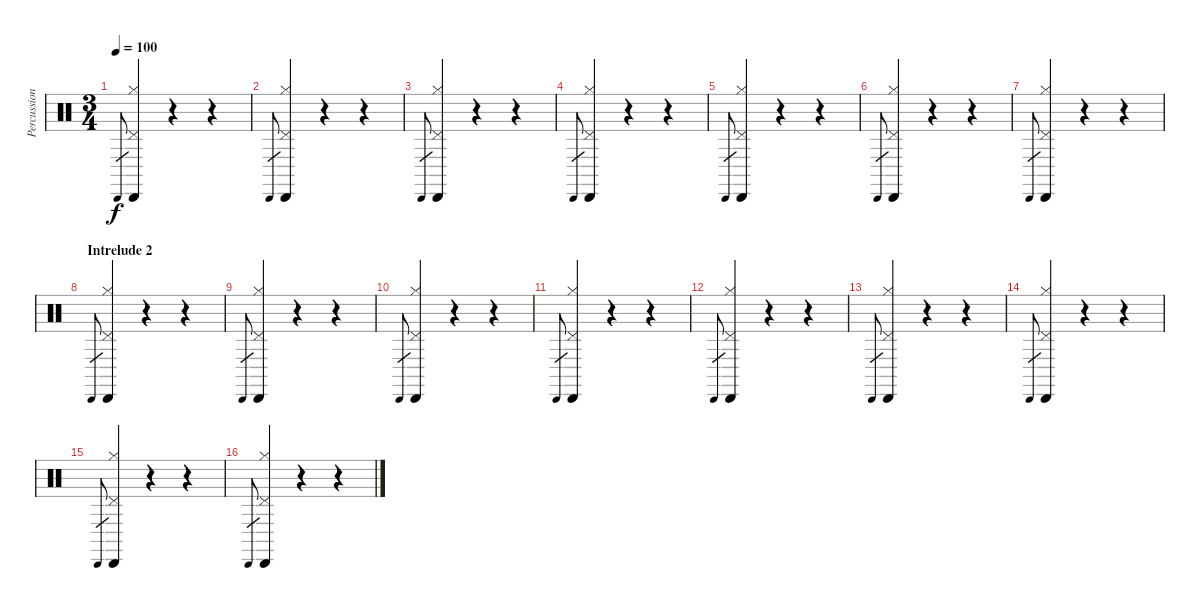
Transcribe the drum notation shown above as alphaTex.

\track ("Percussion" "Percussion") {instrument percussion}
\staff {score}
\articulation defaults
\ts (3 4)
\tempo 100
\clef neutral
\ks c "Cabasa (hit)".8{gr dy f}
("Pedal Hi-Hat (hit)" "Cabasa (hit)" "Hi-Hat (closed)").4 r.4 r.4 |
"Cabasa (hit)".8{gr} ("Pedal Hi-Hat (hit)" "Cabasa (hit)" "Hi-Hat (closed)").4 r.4 r.4 |
"Cabasa (hit)".8{gr} ("Pedal Hi-Hat (hit)" "Cabasa (hit)" "Hi-Hat (closed)").4 r.4 r.4 |
"Cabasa (hit)".8{gr} ("Pedal Hi-Hat (hit)" "Cabasa (hit)" "Hi-Hat (closed)").4 r.4 r.4 |
"Cabasa (hit)".8{gr} ("Pedal Hi-Hat (hit)" "Cabasa (hit)" "Hi-Hat (closed)").4 r.4 r.4 |
"Cabasa (hit)".8{gr} ("Pedal Hi-Hat (hit)" "Cabasa (hit)" "Hi-Hat (closed)").4 r.4 r.4 |
"Cabasa (hit)".8{gr} ("Pedal Hi-Hat (hit)" "Cabasa (hit)" "Hi-Hat (closed)").4 r.4 r.4 |
\section ("" "Intrelude 2")
"Cabasa (hit)".8{gr} ("Pedal Hi-Hat (hit)" "Cabasa (hit)" "Hi-Hat (closed)").4 r.4 r.4 |
"Cabasa (hit)".8{gr} ("Pedal Hi-Hat (hit)" "Cabasa (hit)" "Hi-Hat (closed)").4 r.4 r.4 |
"Cabasa (hit)".8{gr} ("Pedal Hi-Hat (hit)" "Cabasa (hit)" "Hi-Hat (closed)").4 r.4 r.4 |
"Cabasa (hit)".8{gr} ("Pedal Hi-Hat (hit)" "Cabasa (hit)" "Hi-Hat (closed)").4 r.4 r.4 |
"Cabasa (hit)".8{gr} ("Pedal Hi-Hat (hit)" "Cabasa (hit)" "Hi-Hat (closed)").4 r.4 r.4 |
"Cabasa (hit)".8{gr} ("Pedal Hi-Hat (hit)" "Cabasa (hit)" "Hi-Hat (closed)").4 r.4 r.4 |
"Cabasa (hit)".8{gr} ("Pedal Hi-Hat (hit)" "Cabasa (hit)" "Hi-Hat (closed)").4 r.4 r.4 |
"Cabasa (hit)".8{gr} ("Pedal Hi-Hat (hit)" "Cabasa (hit)" "Hi-Hat (closed)").4 r.4 r.4 |
"Cabasa (hit)".8{gr} ("Pedal Hi-Hat (hit)" "Cabasa (hit)" "Hi-Hat (closed)").4 r.4 r.4
